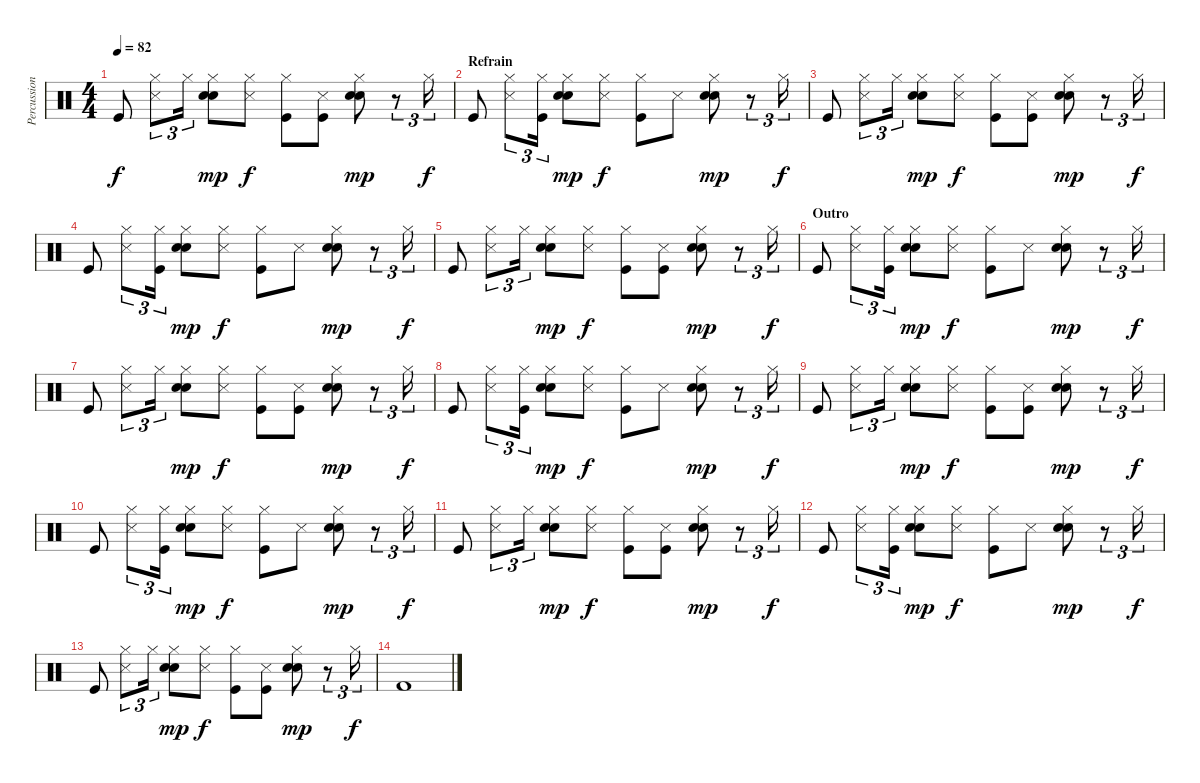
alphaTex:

\track ("Percussion" "Percussion") {instrument percussion}
\staff {score}
\articulation defaults
\ts (4 4)
\tempo 82
\clef neutral
\ks c "Kick (hit)".8{dy f}
("Hi-Hat (closed)" "Snare (side stick) 3").8{tu (3 2)} "Hi-Hat (closed)".16{tu (3 2)} ("Hi-Hat (closed)" "Hand Clap (hit)" "Electric Snare (hit)").8{dy mp} ("Hi-Hat (closed)" "Snare (side stick) 3").8{dy f} ("Hi-Hat (closed)" "Kick (hit)").8 ("Snare (side stick) 3" "Kick (hit)").8 ("Hi-Hat (closed)" "Hand Clap (hit)" "Electric Snare (hit)").8{dy mp} r.8{tu (3 2)} "Hi-Hat (closed)".16{tu (3 2) dy f} |
\section ("" "Refrain")
"Kick (hit)".8 ("Hi-Hat (closed)" "Snare (side stick) 3").8{tu (3 2)} ("Hi-Hat (closed)" "Kick (hit)").16{tu (3 2)} ("Hi-Hat (closed)" "Hand Clap (hit)" "Electric Snare (hit)").8{dy mp} ("Hi-Hat (closed)" "Snare (side stick) 3").8{dy f} ("Hi-Hat (closed)" "Kick (hit)").8 "Snare (side stick) 3".8 ("Hi-Hat (closed)" "Hand Clap (hit)" "Electric Snare (hit)").8{dy mp} r.8{tu (3 2)} "Hi-Hat (closed)".16{tu (3 2) dy f} |
"Kick (hit)".8 ("Hi-Hat (closed)" "Snare (side stick) 3").8{tu (3 2)} "Hi-Hat (closed)".16{tu (3 2)} ("Hi-Hat (closed)" "Hand Clap (hit)" "Electric Snare (hit)").8{dy mp} ("Hi-Hat (closed)" "Snare (side stick) 3").8{dy f} ("Hi-Hat (closed)" "Kick (hit)").8 ("Snare (side stick) 3" "Kick (hit)").8 ("Hi-Hat (closed)" "Hand Clap (hit)" "Electric Snare (hit)").8{dy mp} r.8{tu (3 2)} "Hi-Hat (closed)".16{tu (3 2) dy f} |
"Kick (hit)".8 ("Hi-Hat (closed)" "Snare (side stick) 3").8{tu (3 2)} ("Hi-Hat (closed)" "Kick (hit)").16{tu (3 2)} ("Hi-Hat (closed)" "Hand Clap (hit)" "Electric Snare (hit)").8{dy mp} ("Hi-Hat (closed)" "Snare (side stick) 3").8{dy f} ("Hi-Hat (closed)" "Kick (hit)").8 "Snare (side stick) 3".8 ("Hi-Hat (closed)" "Hand Clap (hit)" "Electric Snare (hit)").8{dy mp} r.8{tu (3 2)} "Hi-Hat (closed)".16{tu (3 2) dy f} |
"Kick (hit)".8 ("Hi-Hat (closed)" "Snare (side stick) 3").8{tu (3 2)} "Hi-Hat (closed)".16{tu (3 2)} ("Hi-Hat (closed)" "Hand Clap (hit)" "Electric Snare (hit)").8{dy mp} ("Hi-Hat (closed)" "Snare (side stick) 3").8{dy f} ("Hi-Hat (closed)" "Kick (hit)").8 ("Snare (side stick) 3" "Kick (hit)").8 ("Hi-Hat (closed)" "Hand Clap (hit)" "Electric Snare (hit)").8{dy mp} r.8{tu (3 2)} "Hi-Hat (closed)".16{tu (3 2) dy f} |
\section ("" "Outro")
"Kick (hit)".8 ("Hi-Hat (closed)" "Snare (side stick) 3").8{tu (3 2)} ("Hi-Hat (closed)" "Kick (hit)").16{tu (3 2)} ("Hi-Hat (closed)" "Hand Clap (hit)" "Electric Snare (hit)").8{dy mp} ("Hi-Hat (closed)" "Snare (side stick) 3").8{dy f} ("Hi-Hat (closed)" "Kick (hit)").8 "Snare (side stick) 3".8 ("Hi-Hat (closed)" "Hand Clap (hit)" "Electric Snare (hit)").8{dy mp} r.8{tu (3 2)} "Hi-Hat (closed)".16{tu (3 2) dy f} |
"Kick (hit)".8 ("Hi-Hat (closed)" "Snare (side stick) 3").8{tu (3 2)} "Hi-Hat (closed)".16{tu (3 2)} ("Hi-Hat (closed)" "Hand Clap (hit)" "Electric Snare (hit)").8{dy mp} ("Hi-Hat (closed)" "Snare (side stick) 3").8{dy f} ("Hi-Hat (closed)" "Kick (hit)").8 ("Snare (side stick) 3" "Kick (hit)").8 ("Hi-Hat (closed)" "Hand Clap (hit)" "Electric Snare (hit)").8{dy mp} r.8{tu (3 2)} "Hi-Hat (closed)".16{tu (3 2) dy f} |
"Kick (hit)".8 ("Hi-Hat (closed)" "Snare (side stick) 3").8{tu (3 2)} ("Hi-Hat (closed)" "Kick (hit)").16{tu (3 2)} ("Hi-Hat (closed)" "Hand Clap (hit)" "Electric Snare (hit)").8{dy mp} ("Hi-Hat (closed)" "Snare (side stick) 3").8{dy f} ("Hi-Hat (closed)" "Kick (hit)").8 "Snare (side stick) 3".8 ("Hi-Hat (closed)" "Hand Clap (hit)" "Electric Snare (hit)").8{dy mp} r.8{tu (3 2)} "Hi-Hat (closed)".16{tu (3 2) dy f} |
"Kick (hit)".8 ("Hi-Hat (closed)" "Snare (side stick) 3").8{tu (3 2)} "Hi-Hat (closed)".16{tu (3 2)} ("Hi-Hat (closed)" "Hand Clap (hit)" "Electric Snare (hit)").8{dy mp} ("Hi-Hat (closed)" "Snare (side stick) 3").8{dy f} ("Hi-Hat (closed)" "Kick (hit)").8 ("Snare (side stick) 3" "Kick (hit)").8 ("Hi-Hat (closed)" "Hand Clap (hit)" "Electric Snare (hit)").8{dy mp} r.8{tu (3 2)} "Hi-Hat (closed)".16{tu (3 2) dy f} |
"Kick (hit)".8 ("Hi-Hat (closed)" "Snare (side stick) 3").8{tu (3 2)} ("Hi-Hat (closed)" "Kick (hit)").16{tu (3 2)} ("Hi-Hat (closed)" "Hand Clap (hit)" "Electric Snare (hit)").8{dy mp} ("Hi-Hat (closed)" "Snare (side stick) 3").8{dy f} ("Hi-Hat (closed)" "Kick (hit)").8 "Snare (side stick) 3".8 ("Hi-Hat (closed)" "Hand Clap (hit)" "Electric Snare (hit)").8{dy mp} r.8{tu (3 2)} "Hi-Hat (closed)".16{tu (3 2) dy f} |
"Kick (hit)".8 ("Hi-Hat (closed)" "Snare (side stick) 3").8{tu (3 2)} "Hi-Hat (closed)".16{tu (3 2)} ("Hi-Hat (closed)" "Hand Clap (hit)" "Electric Snare (hit)").8{dy mp} ("Hi-Hat (closed)" "Snare (side stick) 3").8{dy f} ("Hi-Hat (closed)" "Kick (hit)").8 ("Snare (side stick) 3" "Kick (hit)").8 ("Hi-Hat (closed)" "Hand Clap (hit)" "Electric Snare (hit)").8{dy mp} r.8{tu (3 2)} "Hi-Hat (closed)".16{tu (3 2) dy f} |
"Kick (hit)".8 ("Hi-Hat (closed)" "Snare (side stick) 3").8{tu (3 2)} ("Hi-Hat (closed)" "Kick (hit)").16{tu (3 2)} ("Hi-Hat (closed)" "Hand Clap (hit)" "Electric Snare (hit)").8{dy mp} ("Hi-Hat (closed)" "Snare (side stick) 3").8{dy f} ("Hi-Hat (closed)" "Kick (hit)").8 "Snare (side stick) 3".8 ("Hi-Hat (closed)" "Hand Clap (hit)" "Electric Snare (hit)").8{dy mp} r.8{tu (3 2)} "Hi-Hat (closed)".16{tu (3 2) dy f} |
"Kick (hit)".8 ("Hi-Hat (closed)" "Snare (side stick) 3").8{tu (3 2)} "Hi-Hat (closed)".16{tu (3 2)} ("Hi-Hat (closed)" "Hand Clap (hit)" "Electric Snare (hit)").8{dy mp} ("Hi-Hat (closed)" "Snare (side stick) 3").8{dy f} ("Hi-Hat (closed)" "Kick (hit)").8 ("Snare (side stick) 3" "Kick (hit)").8 ("Hi-Hat (closed)" "Hand Clap (hit)" "Electric Snare (hit)").8{dy mp} r.8{tu (3 2)} "Hi-Hat (closed)".16{tu (3 2) dy f} |
"Kick (hit) 2".1
